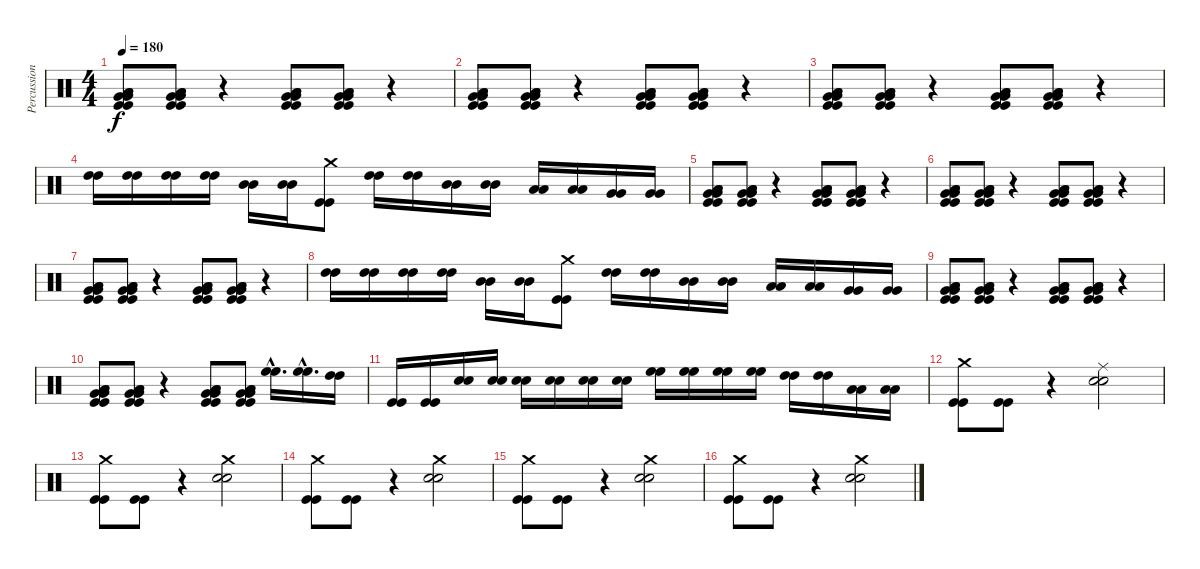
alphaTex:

\track ("Percussion" "Percussion") {instrument percussion}
\staff {score}
\articulation defaults
\ts (4 4)
\tempo 180
\clef neutral
\ks c
("Low Floor Tom (hit)" "Low Floor Tom (hit)" "Very Low Tom (hit)" "Very Low Tom (hit)" "Kick (hit)" "Kick (hit)").8{dy f} ("Low Floor Tom (hit)" "Low Floor Tom (hit)" "Very Low Tom (hit)" "Very Low Tom (hit)" "Kick (hit)" "Kick (hit)").8 r.4 ("Low Floor Tom (hit)" "Low Floor Tom (hit)" "Very Low Tom (hit)" "Very Low Tom (hit)" "Kick (hit)" "Kick (hit)").8 ("Low Floor Tom (hit)" "Low Floor Tom (hit)" "Very Low Tom (hit)" "Very Low Tom (hit)" "Kick (hit)" "Kick (hit)").8 r.4 |
("Low Floor Tom (hit)" "Low Floor Tom (hit)" "Very Low Tom (hit)" "Very Low Tom (hit)" "Kick (hit)" "Kick (hit)").8 ("Low Floor Tom (hit)" "Low Floor Tom (hit)" "Very Low Tom (hit)" "Very Low Tom (hit)" "Kick (hit)" "Kick (hit)").8 r.4 ("Low Floor Tom (hit)" "Low Floor Tom (hit)" "Very Low Tom (hit)" "Very Low Tom (hit)" "Kick (hit)" "Kick (hit)").8 ("Low Floor Tom (hit)" "Low Floor Tom (hit)" "Very Low Tom (hit)" "Very Low Tom (hit)" "Kick (hit)" "Kick (hit)").8 r.4 |
("Low Floor Tom (hit)" "Low Floor Tom (hit)" "Very Low Tom (hit)" "Very Low Tom (hit)" "Kick (hit)" "Kick (hit)").8 ("Low Floor Tom (hit)" "Low Floor Tom (hit)" "Very Low Tom (hit)" "Very Low Tom (hit)" "Kick (hit)" "Kick (hit)").8 r.4 ("Low Floor Tom (hit)" "Low Floor Tom (hit)" "Very Low Tom (hit)" "Very Low Tom (hit)" "Kick (hit)" "Kick (hit)").8 ("Low Floor Tom (hit)" "Low Floor Tom (hit)" "Very Low Tom (hit)" "Very Low Tom (hit)" "Kick (hit)" "Kick (hit)").8 r.4 |
("High Tom (hit)" "High Tom (hit)").16 ("High Tom (hit)" "High Tom (hit)").16 ("High Tom (hit)" "High Tom (hit)").16 ("High Tom (hit)" "High Tom (hit)").16 ("Mid Tom (hit)" "Mid Tom (hit)").16 ("Mid Tom (hit)" "Mid Tom (hit)").16 ("Crash medium (hit)" "Kick (hit)" "Kick (hit)").8 ("High Tom (hit)" "High Tom (hit)").16 ("High Tom (hit)" "High Tom (hit)").16 ("Mid Tom (hit)" "Mid Tom (hit)").16 ("Mid Tom (hit)" "Mid Tom (hit)").16 ("Low Tom (hit)" "Low Tom (hit)").16 ("Low Tom (hit)" "Low Tom (hit)").16 ("Very Low Tom (hit)" "Very Low Tom (hit)").16 ("Very Low Tom (hit)" "Very Low Tom (hit)").16 |
("Low Floor Tom (hit)" "Low Floor Tom (hit)" "Very Low Tom (hit)" "Very Low Tom (hit)" "Kick (hit)" "Kick (hit)").8 ("Low Floor Tom (hit)" "Low Floor Tom (hit)" "Very Low Tom (hit)" "Very Low Tom (hit)" "Kick (hit)" "Kick (hit)").8 r.4 ("Low Floor Tom (hit)" "Low Floor Tom (hit)" "Very Low Tom (hit)" "Very Low Tom (hit)" "Kick (hit)" "Kick (hit)").8 ("Low Floor Tom (hit)" "Low Floor Tom (hit)" "Very Low Tom (hit)" "Very Low Tom (hit)" "Kick (hit)" "Kick (hit)").8 r.4 |
("Low Floor Tom (hit)" "Low Floor Tom (hit)" "Very Low Tom (hit)" "Very Low Tom (hit)" "Kick (hit)" "Kick (hit)").8 ("Low Floor Tom (hit)" "Low Floor Tom (hit)" "Very Low Tom (hit)" "Very Low Tom (hit)" "Kick (hit)" "Kick (hit)").8 r.4 ("Low Floor Tom (hit)" "Low Floor Tom (hit)" "Very Low Tom (hit)" "Very Low Tom (hit)" "Kick (hit)" "Kick (hit)").8 ("Low Floor Tom (hit)" "Low Floor Tom (hit)" "Very Low Tom (hit)" "Very Low Tom (hit)" "Kick (hit)" "Kick (hit)").8 r.4 |
("Low Floor Tom (hit)" "Low Floor Tom (hit)" "Very Low Tom (hit)" "Very Low Tom (hit)" "Kick (hit)" "Kick (hit)").8 ("Low Floor Tom (hit)" "Low Floor Tom (hit)" "Very Low Tom (hit)" "Very Low Tom (hit)" "Kick (hit)" "Kick (hit)").8 r.4 ("Low Floor Tom (hit)" "Low Floor Tom (hit)" "Very Low Tom (hit)" "Very Low Tom (hit)" "Kick (hit)" "Kick (hit)").8 ("Low Floor Tom (hit)" "Low Floor Tom (hit)" "Very Low Tom (hit)" "Very Low Tom (hit)" "Kick (hit)" "Kick (hit)").8 r.4 |
("High Tom (hit)" "High Tom (hit)").16 ("High Tom (hit)" "High Tom (hit)").16 ("High Tom (hit)" "High Tom (hit)").16 ("High Tom (hit)" "High Tom (hit)").16 ("Mid Tom (hit)" "Mid Tom (hit)").16 ("Mid Tom (hit)" "Mid Tom (hit)").16 ("Crash medium (hit)" "Kick (hit)" "Kick (hit)").8 ("High Tom (hit)" "High Tom (hit)").16 ("High Tom (hit)" "High Tom (hit)").16 ("Mid Tom (hit)" "Mid Tom (hit)").16 ("Mid Tom (hit)" "Mid Tom (hit)").16 ("Low Tom (hit)" "Low Tom (hit)").16 ("Low Tom (hit)" "Low Tom (hit)").16 ("Very Low Tom (hit)" "Very Low Tom (hit)").16 ("Very Low Tom (hit)" "Very Low Tom (hit)").16 |
("Low Floor Tom (hit)" "Low Floor Tom (hit)" "Very Low Tom (hit)" "Very Low Tom (hit)" "Kick (hit)" "Kick (hit)").8 ("Low Floor Tom (hit)" "Low Floor Tom (hit)" "Very Low Tom (hit)" "Very Low Tom (hit)" "Kick (hit)" "Kick (hit)").8 r.4 ("Low Floor Tom (hit)" "Low Floor Tom (hit)" "Very Low Tom (hit)" "Very Low Tom (hit)" "Kick (hit)" "Kick (hit)").8 ("Low Floor Tom (hit)" "Low Floor Tom (hit)" "Very Low Tom (hit)" "Very Low Tom (hit)" "Kick (hit)" "Kick (hit)").8 r.4 |
("Low Floor Tom (hit)" "Low Floor Tom (hit)" "Very Low Tom (hit)" "Very Low Tom (hit)" "Kick (hit)" "Kick (hit)").8 ("Low Floor Tom (hit)" "Low Floor Tom (hit)" "Very Low Tom (hit)" "Very Low Tom (hit)" "Kick (hit)" "Kick (hit)").8 r.4 ("Low Floor Tom (hit)" "Low Floor Tom (hit)" "Very Low Tom (hit)" "Very Low Tom (hit)" "Kick (hit)" "Kick (hit)").8 ("Low Floor Tom (hit)" "Low Floor Tom (hit)" "Very Low Tom (hit)" "Very Low Tom (hit)" "Kick (hit)" "Kick (hit)").8 ("High Floor Tom (hit)"{hac} "High Floor Tom (hit)"{hac}).16{d} ("High Floor Tom (hit)"{hac} "High Floor Tom (hit)"{hac}).16{d} ("High Tom (hit)" "High Tom (hit)").16 |
("Kick (hit)" "Kick (hit)").16 ("Kick (hit)" "Kick (hit)").16 ("Snare (hit) 2" "Snare (hit) 2").16 ("Snare (hit) 2" "Snare (hit) 2").16 ("Snare (hit) 2" "Snare (hit) 2").16 ("Snare (hit) 2" "Snare (hit) 2").16 ("Snare (hit) 2" "Snare (hit) 2").16 ("Snare (hit) 2" "Snare (hit) 2").16 ("High Floor Tom (hit)" "High Floor Tom (hit)").16 ("High Floor Tom (hit)" "High Floor Tom (hit)").16 ("High Floor Tom (hit)" "High Floor Tom (hit)").16 ("High Floor Tom (hit)" "High Floor Tom (hit)").16 ("High Tom (hit)" "High Tom (hit)").16 ("High Tom (hit)" "High Tom (hit)").16 ("Low Tom (hit)" "Low Tom (hit)").16 ("Low Tom (hit)" "Low Tom (hit)").16 |
("Crash medium (hit)" "Kick (hit)" "Kick (hit)").8 ("Kick (hit)" "Kick (hit)").8 r.4 ("Ride (middle)" "Snare (hit) 2" "Snare (hit) 2").2 |
("Crash medium (hit)" "Kick (hit)" "Kick (hit)").8 ("Kick (hit)" "Kick (hit)").8 r.4 ("Snare (hit) 2" "Snare (hit) 2" "Crash medium (hit)").2 |
("Crash medium (hit)" "Kick (hit)" "Kick (hit)").8 ("Kick (hit)" "Kick (hit)").8 r.4 ("Snare (hit) 2" "Snare (hit) 2" "Crash medium (hit)").2 |
("Crash medium (hit)" "Kick (hit)" "Kick (hit)").8 ("Kick (hit)" "Kick (hit)").8 r.4 ("Snare (hit) 2" "Snare (hit) 2" "Crash medium (hit)").2 |
("Crash medium (hit)" "Kick (hit)" "Kick (hit)").8 ("Kick (hit)" "Kick (hit)").8 r.4 ("Snare (hit) 2" "Snare (hit) 2" "Crash medium (hit)").2
